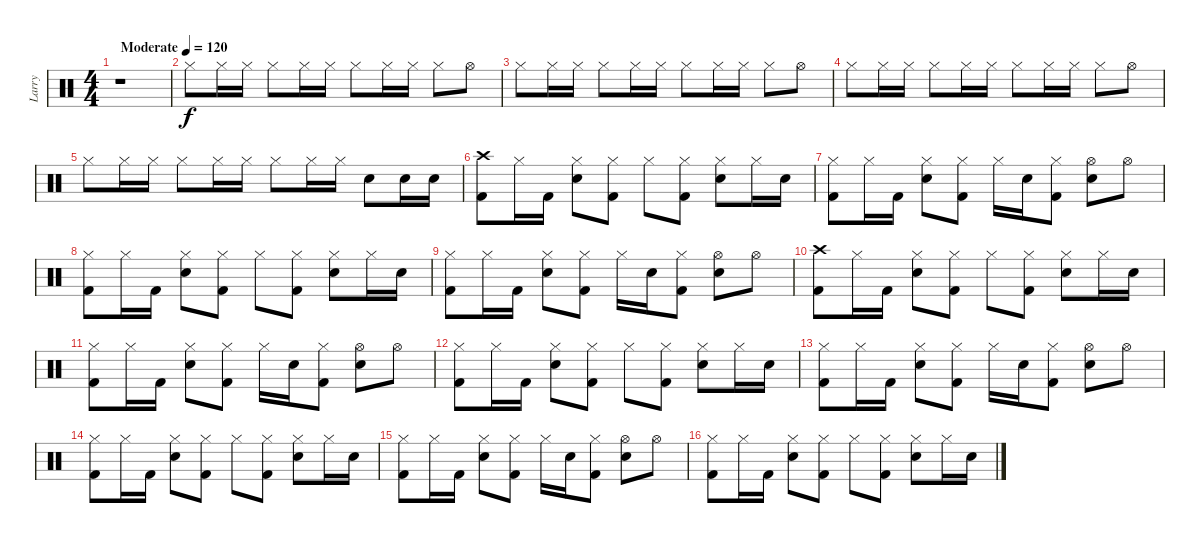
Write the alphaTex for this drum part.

\track ("Larry" "Larry") {instrument percussion}
\staff {score}
\articulation defaults
\ts (4 4)
\tempo (120 "Moderate")
\clef neutral
\ks c
r.1{dy f} |
"Hi-Hat (closed)".8 "Hi-Hat (closed)".16 "Hi-Hat (closed)".16 "Hi-Hat (closed)".8 "Hi-Hat (closed)".16 "Hi-Hat (closed)".16 "Hi-Hat (closed)".8 "Hi-Hat (closed)".16 "Hi-Hat (closed)".16 "Hi-Hat (closed)".8 "Hi-Hat (open)".8 |
"Hi-Hat (closed)".8 "Hi-Hat (closed)".16 "Hi-Hat (closed)".16 "Hi-Hat (closed)".8 "Hi-Hat (closed)".16 "Hi-Hat (closed)".16 "Hi-Hat (closed)".8 "Hi-Hat (closed)".16 "Hi-Hat (closed)".16 "Hi-Hat (closed)".8 "Hi-Hat (open)".8 |
"Hi-Hat (closed)".8 "Hi-Hat (closed)".16 "Hi-Hat (closed)".16 "Hi-Hat (closed)".8 "Hi-Hat (closed)".16 "Hi-Hat (closed)".16 "Hi-Hat (closed)".8 "Hi-Hat (closed)".16 "Hi-Hat (closed)".16 "Hi-Hat (closed)".8 "Hi-Hat (open)".8 |
"Hi-Hat (closed)".8 "Hi-Hat (closed)".16 "Hi-Hat (closed)".16 "Hi-Hat (closed)".8 "Hi-Hat (closed)".16 "Hi-Hat (closed)".16 "Hi-Hat (closed)".8 "Hi-Hat (closed)".16 "Hi-Hat (closed)".16 "Snare (hit) 2".8 "Snare (hit) 2".16 "Snare (hit) 2".16 |
("Crash high (hit)" "Kick (hit) 2").8 "Hi-Hat (closed)".16 "Kick (hit) 2".16 ("Hi-Hat (closed)" "Snare (hit) 2").8 ("Hi-Hat (closed)" "Kick (hit) 2").8 "Hi-Hat (closed)".8 ("Hi-Hat (closed)" "Kick (hit) 2").8 ("Hi-Hat (closed)" "Snare (hit) 2").8 "Hi-Hat (closed)".16 "Snare (hit) 2".16 |
("Hi-Hat (closed)" "Kick (hit) 2").8 "Hi-Hat (closed)".16 "Kick (hit) 2".16 ("Hi-Hat (closed)" "Snare (hit) 2").8 ("Hi-Hat (closed)" "Kick (hit) 2").8 "Hi-Hat (closed)".16 "Snare (hit) 2".16 ("Hi-Hat (closed)" "Kick (hit) 2").8 ("Hi-Hat (open)" "Snare (hit) 2").8 "Hi-Hat (open)".8 |
("Hi-Hat (closed)" "Kick (hit) 2").8 "Hi-Hat (closed)".16 "Kick (hit) 2".16 ("Hi-Hat (closed)" "Snare (hit) 2").8 ("Hi-Hat (closed)" "Kick (hit) 2").8 "Hi-Hat (closed)".8 ("Hi-Hat (closed)" "Kick (hit) 2").8 ("Hi-Hat (closed)" "Snare (hit) 2").8 "Hi-Hat (closed)".16 "Snare (hit) 2".16 |
("Hi-Hat (closed)" "Kick (hit) 2").8 "Hi-Hat (closed)".16 "Kick (hit) 2".16 ("Hi-Hat (closed)" "Snare (hit) 2").8 ("Hi-Hat (closed)" "Kick (hit) 2").8 "Hi-Hat (closed)".16 "Snare (hit) 2".16 ("Hi-Hat (closed)" "Kick (hit) 2").8 ("Hi-Hat (open)" "Snare (hit) 2").8 "Hi-Hat (open)".8 |
("Crash high (hit)" "Kick (hit) 2").8 "Hi-Hat (closed)".16 "Kick (hit) 2".16 ("Hi-Hat (closed)" "Snare (hit) 2").8 ("Hi-Hat (closed)" "Kick (hit) 2").8 "Hi-Hat (closed)".8 ("Hi-Hat (closed)" "Kick (hit) 2").8 ("Hi-Hat (closed)" "Snare (hit) 2").8 "Hi-Hat (closed)".16 "Snare (hit) 2".16 |
("Hi-Hat (closed)" "Kick (hit) 2").8 "Hi-Hat (closed)".16 "Kick (hit) 2".16 ("Hi-Hat (closed)" "Snare (hit) 2").8 ("Hi-Hat (closed)" "Kick (hit) 2").8 "Hi-Hat (closed)".16 "Snare (hit) 2".16 ("Hi-Hat (closed)" "Kick (hit) 2").8 ("Hi-Hat (open)" "Snare (hit) 2").8 "Hi-Hat (open)".8 |
("Hi-Hat (closed)" "Kick (hit) 2").8 "Hi-Hat (closed)".16 "Kick (hit) 2".16 ("Hi-Hat (closed)" "Snare (hit) 2").8 ("Hi-Hat (closed)" "Kick (hit) 2").8 "Hi-Hat (closed)".8 ("Hi-Hat (closed)" "Kick (hit) 2").8 ("Hi-Hat (closed)" "Snare (hit) 2").8 "Hi-Hat (closed)".16 "Snare (hit) 2".16 |
("Hi-Hat (closed)" "Kick (hit) 2").8 "Hi-Hat (closed)".16 "Kick (hit) 2".16 ("Hi-Hat (closed)" "Snare (hit) 2").8 ("Hi-Hat (closed)" "Kick (hit) 2").8 "Hi-Hat (closed)".16 "Snare (hit) 2".16 ("Hi-Hat (closed)" "Kick (hit) 2").8 ("Hi-Hat (open)" "Snare (hit) 2").8 "Hi-Hat (open)".8 |
("Hi-Hat (closed)" "Kick (hit) 2").8 "Hi-Hat (closed)".16 "Kick (hit) 2".16 ("Hi-Hat (closed)" "Snare (hit) 2").8 ("Hi-Hat (closed)" "Kick (hit) 2").8 "Hi-Hat (closed)".8 ("Hi-Hat (closed)" "Kick (hit) 2").8 ("Hi-Hat (closed)" "Snare (hit) 2").8 "Hi-Hat (closed)".16 "Snare (hit) 2".16 |
("Hi-Hat (closed)" "Kick (hit) 2").8 "Hi-Hat (closed)".16 "Kick (hit) 2".16 ("Hi-Hat (closed)" "Snare (hit) 2").8 ("Hi-Hat (closed)" "Kick (hit) 2").8 "Hi-Hat (closed)".16 "Snare (hit) 2".16 ("Hi-Hat (closed)" "Kick (hit) 2").8 ("Hi-Hat (open)" "Snare (hit) 2").8 "Hi-Hat (open)".8 |
("Hi-Hat (closed)" "Kick (hit) 2").8 "Hi-Hat (closed)".16 "Kick (hit) 2".16 ("Hi-Hat (closed)" "Snare (hit) 2").8 ("Hi-Hat (closed)" "Kick (hit) 2").8 "Hi-Hat (closed)".8 ("Hi-Hat (closed)" "Kick (hit) 2").8 ("Hi-Hat (closed)" "Snare (hit) 2").8 "Hi-Hat (closed)".16 "Snare (hit) 2".16
